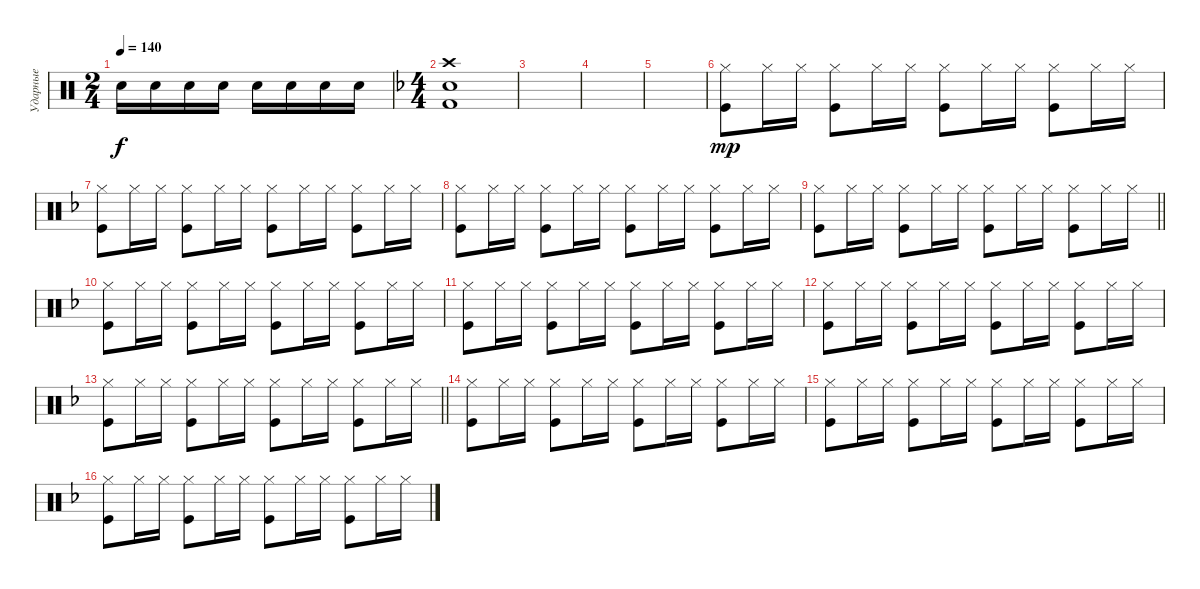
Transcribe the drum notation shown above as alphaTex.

\track ("Ударные" "Ударные") {instrument percussion}
\staff {score}
\articulation defaults
\ts (2 4)
\tempo 140
\clef neutral
\ks c "Electric Snare (hit)".16{dy f} "Electric Snare (hit)".16 "Electric Snare (hit)".16 "Electric Snare (hit)".16 "Electric Snare (hit)".16 "Electric Snare (hit)".16 "Electric Snare (hit)".16 "Electric Snare (hit)".16
|
\ts (4 4)
\ks dminor
("Crash high (hit)" "Kick (hit) 2" "Snare (hit) 2").1 |
|
|
|
("Hi-Hat (closed)" "Kick (hit)").8{dy mp} "Hi-Hat (closed)".16 "Hi-Hat (closed)".16 ("Hi-Hat (closed)" "Kick (hit)").8 "Hi-Hat (closed)".16 "Hi-Hat (closed)".16 ("Hi-Hat (closed)" "Kick (hit)").8 "Hi-Hat (closed)".16 "Hi-Hat (closed)".16 ("Hi-Hat (closed)" "Kick (hit)").8 "Hi-Hat (closed)".16 "Hi-Hat (closed)".16 |
("Hi-Hat (closed)" "Kick (hit)").8 "Hi-Hat (closed)".16 "Hi-Hat (closed)".16 ("Hi-Hat (closed)" "Kick (hit)").8 "Hi-Hat (closed)".16 "Hi-Hat (closed)".16 ("Hi-Hat (closed)" "Kick (hit)").8 "Hi-Hat (closed)".16 "Hi-Hat (closed)".16 ("Hi-Hat (closed)" "Kick (hit)").8 "Hi-Hat (closed)".16 "Hi-Hat (closed)".16 |
("Hi-Hat (closed)" "Kick (hit)").8 "Hi-Hat (closed)".16 "Hi-Hat (closed)".16 ("Hi-Hat (closed)" "Kick (hit)").8 "Hi-Hat (closed)".16 "Hi-Hat (closed)".16 ("Hi-Hat (closed)" "Kick (hit)").8 "Hi-Hat (closed)".16 "Hi-Hat (closed)".16 ("Hi-Hat (closed)" "Kick (hit)").8 "Hi-Hat (closed)".16 "Hi-Hat (closed)".16 |
\barLineRight lightlight
("Hi-Hat (closed)" "Kick (hit)").8 "Hi-Hat (closed)".16 "Hi-Hat (closed)".16 ("Hi-Hat (closed)" "Kick (hit)").8 "Hi-Hat (closed)".16 "Hi-Hat (closed)".16 ("Hi-Hat (closed)" "Kick (hit)").8 "Hi-Hat (closed)".16 "Hi-Hat (closed)".16 ("Hi-Hat (closed)" "Kick (hit)").8 "Hi-Hat (closed)".16 "Hi-Hat (closed)".16 |
("Hi-Hat (closed)" "Kick (hit)").8 "Hi-Hat (closed)".16 "Hi-Hat (closed)".16 ("Hi-Hat (closed)" "Kick (hit)").8 "Hi-Hat (closed)".16 "Hi-Hat (closed)".16 ("Hi-Hat (closed)" "Kick (hit)").8 "Hi-Hat (closed)".16 "Hi-Hat (closed)".16 ("Hi-Hat (closed)" "Kick (hit)").8 "Hi-Hat (closed)".16 "Hi-Hat (closed)".16 |
("Hi-Hat (closed)" "Kick (hit)").8 "Hi-Hat (closed)".16 "Hi-Hat (closed)".16 ("Hi-Hat (closed)" "Kick (hit)").8 "Hi-Hat (closed)".16 "Hi-Hat (closed)".16 ("Hi-Hat (closed)" "Kick (hit)").8 "Hi-Hat (closed)".16 "Hi-Hat (closed)".16 ("Hi-Hat (closed)" "Kick (hit)").8 "Hi-Hat (closed)".16 "Hi-Hat (closed)".16 |
("Hi-Hat (closed)" "Kick (hit)").8 "Hi-Hat (closed)".16 "Hi-Hat (closed)".16 ("Hi-Hat (closed)" "Kick (hit)").8 "Hi-Hat (closed)".16 "Hi-Hat (closed)".16 ("Hi-Hat (closed)" "Kick (hit)").8 "Hi-Hat (closed)".16 "Hi-Hat (closed)".16 ("Hi-Hat (closed)" "Kick (hit)").8 "Hi-Hat (closed)".16 "Hi-Hat (closed)".16 |
\barLineRight lightlight
("Hi-Hat (closed)" "Kick (hit)").8 "Hi-Hat (closed)".16 "Hi-Hat (closed)".16 ("Hi-Hat (closed)" "Kick (hit)").8 "Hi-Hat (closed)".16 "Hi-Hat (closed)".16 ("Hi-Hat (closed)" "Kick (hit)").8 "Hi-Hat (closed)".16 "Hi-Hat (closed)".16 ("Hi-Hat (closed)" "Kick (hit)").8 "Hi-Hat (closed)".16 "Hi-Hat (closed)".16 |
("Hi-Hat (closed)" "Kick (hit)").8 "Hi-Hat (closed)".16 "Hi-Hat (closed)".16 ("Hi-Hat (closed)" "Kick (hit)").8 "Hi-Hat (closed)".16 "Hi-Hat (closed)".16 ("Hi-Hat (closed)" "Kick (hit)").8 "Hi-Hat (closed)".16 "Hi-Hat (closed)".16 ("Hi-Hat (closed)" "Kick (hit)").8 "Hi-Hat (closed)".16 "Hi-Hat (closed)".16 |
("Hi-Hat (closed)" "Kick (hit)").8 "Hi-Hat (closed)".16 "Hi-Hat (closed)".16 ("Hi-Hat (closed)" "Kick (hit)").8 "Hi-Hat (closed)".16 "Hi-Hat (closed)".16 ("Hi-Hat (closed)" "Kick (hit)").8 "Hi-Hat (closed)".16 "Hi-Hat (closed)".16 ("Hi-Hat (closed)" "Kick (hit)").8 "Hi-Hat (closed)".16 "Hi-Hat (closed)".16 |
("Hi-Hat (closed)" "Kick (hit)").8 "Hi-Hat (closed)".16 "Hi-Hat (closed)".16 ("Hi-Hat (closed)" "Kick (hit)").8 "Hi-Hat (closed)".16 "Hi-Hat (closed)".16 ("Hi-Hat (closed)" "Kick (hit)").8 "Hi-Hat (closed)".16 "Hi-Hat (closed)".16 ("Hi-Hat (closed)" "Kick (hit)").8 "Hi-Hat (closed)".16 "Hi-Hat (closed)".16
